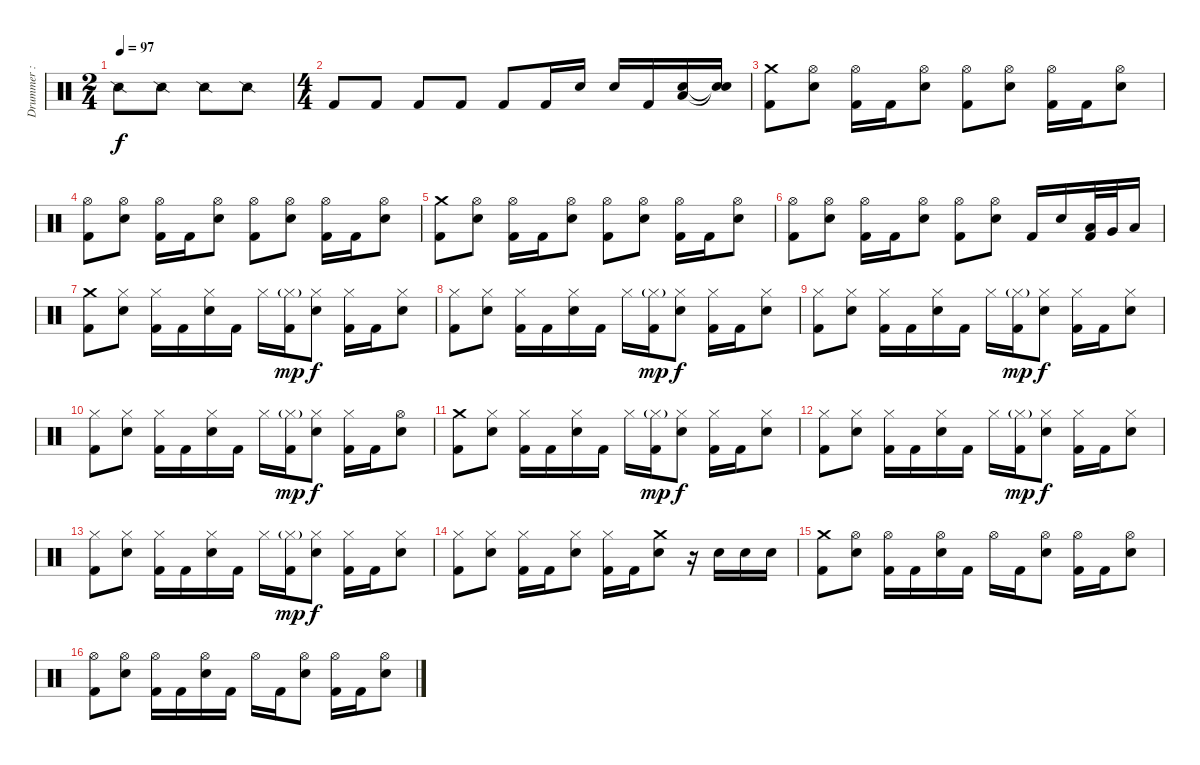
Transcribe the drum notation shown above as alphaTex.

\track ("Drummer : Tainaka Ritsu - Tan" "Drummer : ") {instrument percussion}
\staff {score}
\articulation defaults
\ts (2 4)
\tempo 97
\clef neutral
\ks c "Snare (side stick) 2".8{dy f} "Snare (side stick) 2".8 "Snare (side stick) 2".8 "Snare (side stick) 2".8
|
\ts (4 4)
"Kick (hit) 2".8 "Kick (hit) 2".8 "Kick (hit) 2".8 "Kick (hit) 2".8 "Kick (hit) 2".8 "Kick (hit) 2".16 "Electric Snare (hit)".16 "Electric Snare (hit)".16 "Kick (hit) 2".16 ("Low Floor Tom (hit)" "Electric Snare (hit)").16 ("Snare (hit)"{t} "Snare (hit)"{t}).16 |
("Crash medium (hit)" "Kick (hit) 2").8 ("Hi-Hat (open)" "Electric Snare (hit)").8 ("Hi-Hat (open)" "Kick (hit) 2").16 "Kick (hit) 2".16 ("Hi-Hat (open)" "Electric Snare (hit)").8 ("Hi-Hat (open)" "Kick (hit) 2").8 ("Hi-Hat (open)" "Electric Snare (hit)").8 ("Hi-Hat (open)" "Kick (hit) 2").16 "Kick (hit) 2".16 ("Hi-Hat (open)" "Electric Snare (hit)").8 |
("Hi-Hat (open)" "Kick (hit) 2").8 ("Hi-Hat (open)" "Electric Snare (hit)").8 ("Hi-Hat (open)" "Kick (hit) 2").16 "Kick (hit) 2".16 ("Hi-Hat (open)" "Electric Snare (hit)").8 ("Hi-Hat (open)" "Kick (hit) 2").8 ("Hi-Hat (open)" "Electric Snare (hit)").8 ("Hi-Hat (open)" "Kick (hit) 2").16 "Kick (hit) 2".16 ("Hi-Hat (open)" "Electric Snare (hit)").8 |
("Crash medium (hit)" "Kick (hit) 2").8 ("Hi-Hat (open)" "Electric Snare (hit)").8 ("Hi-Hat (open)" "Kick (hit) 2").16 "Kick (hit) 2".16 ("Hi-Hat (open)" "Electric Snare (hit)").8 ("Hi-Hat (open)" "Kick (hit) 2").8 ("Hi-Hat (open)" "Electric Snare (hit)").8 ("Hi-Hat (open)" "Kick (hit) 2").16 "Kick (hit) 2".16 ("Hi-Hat (open)" "Electric Snare (hit)").8 |
("Hi-Hat (open)" "Kick (hit) 2").8 ("Hi-Hat (open)" "Electric Snare (hit)").8 ("Hi-Hat (open)" "Kick (hit) 2").16 "Kick (hit) 2".16 ("Hi-Hat (open)" "Electric Snare (hit)").8 ("Hi-Hat (open)" "Kick (hit) 2").8 ("Hi-Hat (open)" "Electric Snare (hit)").8 "Kick (hit) 2".16 "Electric Snare (hit)".16 ("Low Tom (hit)" "Kick (hit) 2").32 "Very Low Tom (hit)".32 "Low Floor Tom (hit)".16 |
("Crash medium (hit)" "Kick (hit) 2").8 ("Hi-Hat (closed)" "Electric Snare (hit)").8 ("Hi-Hat (closed)" "Kick (hit) 2").16 "Kick (hit) 2".16 ("Hi-Hat (closed)" "Electric Snare (hit)").16 "Kick (hit) 2".16 "Hi-Hat (closed)".16 ("Hi-Hat (closed)"{g} "Kick (hit) 2").16{dy mp} ("Hi-Hat (closed)" "Electric Snare (hit)").8{dy f} ("Hi-Hat (closed)" "Kick (hit) 2").16 "Kick (hit) 2".16 ("Hi-Hat (closed)" "Electric Snare (hit)").8 |
("Hi-Hat (closed)" "Kick (hit) 2").8 ("Hi-Hat (closed)" "Electric Snare (hit)").8 ("Hi-Hat (closed)" "Kick (hit) 2").16 "Kick (hit) 2".16 ("Hi-Hat (closed)" "Electric Snare (hit)").16 "Kick (hit) 2".16 "Hi-Hat (closed)".16 ("Hi-Hat (closed)"{g} "Kick (hit) 2").16{dy mp} ("Hi-Hat (closed)" "Electric Snare (hit)").8{dy f} ("Hi-Hat (closed)" "Kick (hit) 2").16 "Kick (hit) 2".16 ("Hi-Hat (closed)" "Electric Snare (hit)").8 |
("Hi-Hat (closed)" "Kick (hit) 2").8 ("Hi-Hat (closed)" "Electric Snare (hit)").8 ("Hi-Hat (closed)" "Kick (hit) 2").16 "Kick (hit) 2".16 ("Hi-Hat (closed)" "Electric Snare (hit)").16 "Kick (hit) 2".16 "Hi-Hat (closed)".16 ("Hi-Hat (closed)"{g} "Kick (hit) 2").16{dy mp} ("Hi-Hat (closed)" "Electric Snare (hit)").8{dy f} ("Hi-Hat (closed)" "Kick (hit) 2").16 "Kick (hit) 2".16 ("Hi-Hat (closed)" "Electric Snare (hit)").8 |
("Hi-Hat (closed)" "Kick (hit) 2").8 ("Hi-Hat (closed)" "Electric Snare (hit)").8 ("Hi-Hat (closed)" "Kick (hit) 2").16 "Kick (hit) 2".16 ("Hi-Hat (closed)" "Electric Snare (hit)").16 "Kick (hit) 2".16 "Hi-Hat (closed)".16 ("Hi-Hat (closed)"{g} "Kick (hit) 2").16{dy mp} ("Hi-Hat (closed)" "Electric Snare (hit)").8{dy f} ("Hi-Hat (closed)" "Kick (hit) 2").16 "Kick (hit) 2".16 ("Hi-Hat (open)" "Electric Snare (hit)").8 |
("Crash medium (hit)" "Kick (hit) 2").8 ("Hi-Hat (closed)" "Electric Snare (hit)").8 ("Hi-Hat (closed)" "Kick (hit) 2").16 "Kick (hit) 2".16 ("Hi-Hat (closed)" "Electric Snare (hit)").16 "Kick (hit) 2".16 "Hi-Hat (closed)".16 ("Hi-Hat (closed)"{g} "Kick (hit) 2").16{dy mp} ("Hi-Hat (closed)" "Electric Snare (hit)").8{dy f} ("Hi-Hat (closed)" "Kick (hit) 2").16 "Kick (hit) 2".16 ("Hi-Hat (closed)" "Electric Snare (hit)").8 |
("Hi-Hat (closed)" "Kick (hit) 2").8 ("Hi-Hat (closed)" "Electric Snare (hit)").8 ("Hi-Hat (closed)" "Kick (hit) 2").16 "Kick (hit) 2".16 ("Hi-Hat (closed)" "Electric Snare (hit)").16 "Kick (hit) 2".16 "Hi-Hat (closed)".16 ("Hi-Hat (closed)"{g} "Kick (hit) 2").16{dy mp} ("Hi-Hat (closed)" "Electric Snare (hit)").8{dy f} ("Hi-Hat (closed)" "Kick (hit) 2").16 "Kick (hit) 2".16 ("Hi-Hat (closed)" "Electric Snare (hit)").8 |
("Hi-Hat (closed)" "Kick (hit) 2").8 ("Hi-Hat (closed)" "Electric Snare (hit)").8 ("Hi-Hat (closed)" "Kick (hit) 2").16 "Kick (hit) 2".16 ("Hi-Hat (closed)" "Electric Snare (hit)").16 "Kick (hit) 2".16 "Hi-Hat (closed)".16 ("Hi-Hat (closed)"{g} "Kick (hit) 2").16{dy mp} ("Hi-Hat (closed)" "Electric Snare (hit)").8{dy f} ("Hi-Hat (closed)" "Kick (hit) 2").16 "Kick (hit) 2".16 ("Hi-Hat (closed)" "Electric Snare (hit)").8 |
("Hi-Hat (closed)" "Kick (hit) 2").8 ("Hi-Hat (closed)" "Electric Snare (hit)").8 ("Hi-Hat (closed)" "Kick (hit) 2").16 "Kick (hit) 2".16 ("Hi-Hat (closed)" "Electric Snare (hit)").8 ("Hi-Hat (closed)" "Kick (hit) 2").16 "Kick (hit) 2".16 ("Crash medium (hit)" "Electric Snare (hit)").8 r.16 "Electric Snare (hit)".16 "Electric Snare (hit)".16 "Electric Snare (hit)".16 |
("Crash medium (hit)" "Kick (hit) 2").8 ("Hi-Hat (open)" "Electric Snare (hit)").8 ("Hi-Hat (open)" "Kick (hit) 2").16 "Kick (hit) 2".16 ("Hi-Hat (open)" "Electric Snare (hit)").16 "Kick (hit) 2".16 "Hi-Hat (open)".16 "Kick (hit) 2".16 ("Hi-Hat (open)" "Electric Snare (hit)").8 ("Hi-Hat (open)" "Kick (hit) 2").16 "Kick (hit) 2".16 ("Hi-Hat (open)" "Electric Snare (hit)").8 |
("Hi-Hat (open)" "Kick (hit) 2").8 ("Hi-Hat (open)" "Electric Snare (hit)").8 ("Hi-Hat (open)" "Kick (hit) 2").16 "Kick (hit) 2".16 ("Hi-Hat (open)" "Electric Snare (hit)").16 "Kick (hit) 2".16 "Hi-Hat (open)".16 "Kick (hit) 2".16 ("Hi-Hat (open)" "Electric Snare (hit)").8 ("Hi-Hat (open)" "Kick (hit) 2").16 "Kick (hit) 2".16 ("Hi-Hat (open)" "Electric Snare (hit)").8
